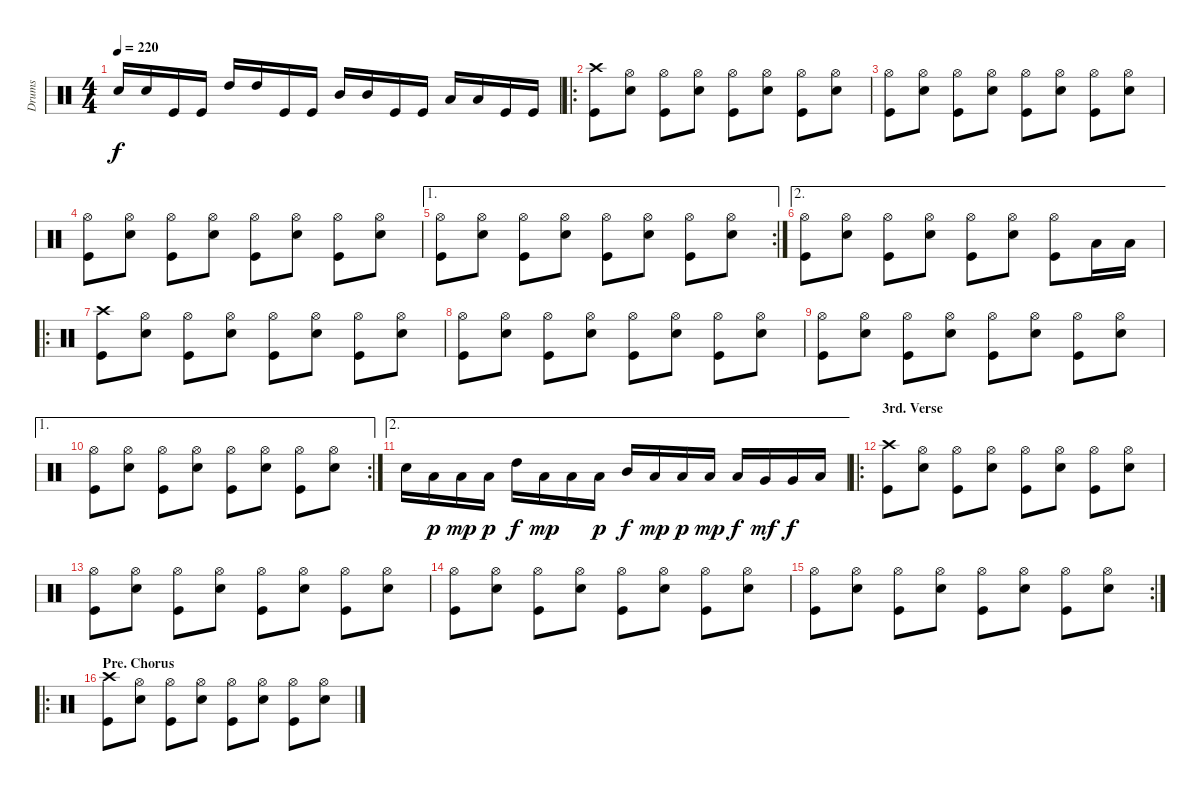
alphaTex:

\track ("Drums" "Drums") {instrument percussion}
\staff {score}
\articulation defaults
\ts (4 4)
\tempo 220
\clef neutral
\ks c "Snare (hit) 2".16{dy f} "Snare (hit) 2".16 "Kick (hit)".16 "Kick (hit)".16 "High Tom (hit)".16 "High Tom (hit)".16 "Kick (hit)".16 "Kick (hit)".16 "Mid Tom (hit)".16 "Mid Tom (hit)".16 "Kick (hit)".16 "Kick (hit)".16 "Low Tom (hit)".16 "Low Tom (hit)".16 "Kick (hit)".16 "Kick (hit)".16
|
\ro
("Crash high (hit)" "Kick (hit)").8 ("Hi-Hat (open)" "Snare (hit) 2").8 ("Hi-Hat (open)" "Kick (hit)").8 ("Hi-Hat (open)" "Snare (hit) 2").8 ("Hi-Hat (open)" "Kick (hit)").8 ("Hi-Hat (open)" "Snare (hit) 2").8 ("Hi-Hat (open)" "Kick (hit)").8 ("Hi-Hat (open)" "Snare (hit) 2").8 |
("Hi-Hat (open)" "Kick (hit)").8 ("Hi-Hat (open)" "Snare (hit) 2").8 ("Hi-Hat (open)" "Kick (hit)").8 ("Hi-Hat (open)" "Snare (hit) 2").8 ("Hi-Hat (open)" "Kick (hit)").8 ("Hi-Hat (open)" "Snare (hit) 2").8 ("Hi-Hat (open)" "Kick (hit)").8 ("Hi-Hat (open)" "Snare (hit) 2").8 |
("Hi-Hat (open)" "Kick (hit)").8 ("Hi-Hat (open)" "Snare (hit) 2").8 ("Hi-Hat (open)" "Kick (hit)").8 ("Hi-Hat (open)" "Snare (hit) 2").8 ("Hi-Hat (open)" "Kick (hit)").8 ("Hi-Hat (open)" "Snare (hit) 2").8 ("Hi-Hat (open)" "Kick (hit)").8 ("Hi-Hat (open)" "Snare (hit) 2").8 |
\ae 1
\rc 2
("Hi-Hat (open)" "Kick (hit)").8 ("Hi-Hat (open)" "Snare (hit) 2").8 ("Hi-Hat (open)" "Kick (hit)").8 ("Hi-Hat (open)" "Snare (hit) 2").8 ("Hi-Hat (open)" "Kick (hit)").8 ("Hi-Hat (open)" "Snare (hit) 2").8 ("Hi-Hat (open)" "Kick (hit)").8 ("Hi-Hat (open)" "Snare (hit) 2").8 |
\ae 2
("Hi-Hat (open)" "Kick (hit)").8 ("Hi-Hat (open)" "Snare (hit) 2").8 ("Hi-Hat (open)" "Kick (hit)").8 ("Hi-Hat (open)" "Snare (hit) 2").8 ("Hi-Hat (open)" "Kick (hit)").8 ("Hi-Hat (open)" "Snare (hit) 2").8 ("Hi-Hat (open)" "Kick (hit)").8 "Low Tom (hit)".16 "Low Tom (hit)".16 |
\ro
("Crash high (hit)" "Kick (hit)").8 ("Hi-Hat (open)" "Snare (hit) 2").8 ("Hi-Hat (open)" "Kick (hit)").8 ("Hi-Hat (open)" "Snare (hit) 2").8 ("Hi-Hat (open)" "Kick (hit)").8 ("Hi-Hat (open)" "Snare (hit) 2").8 ("Hi-Hat (open)" "Kick (hit)").8 ("Hi-Hat (open)" "Snare (hit) 2").8 |
("Hi-Hat (open)" "Kick (hit)").8 ("Hi-Hat (open)" "Snare (hit) 2").8 ("Hi-Hat (open)" "Kick (hit)").8 ("Hi-Hat (open)" "Snare (hit) 2").8 ("Hi-Hat (open)" "Kick (hit)").8 ("Hi-Hat (open)" "Snare (hit) 2").8 ("Hi-Hat (open)" "Kick (hit)").8 ("Hi-Hat (open)" "Snare (hit) 2").8 |
("Hi-Hat (open)" "Kick (hit)").8 ("Hi-Hat (open)" "Snare (hit) 2").8 ("Hi-Hat (open)" "Kick (hit)").8 ("Hi-Hat (open)" "Snare (hit) 2").8 ("Hi-Hat (open)" "Kick (hit)").8 ("Hi-Hat (open)" "Snare (hit) 2").8 ("Hi-Hat (open)" "Kick (hit)").8 ("Hi-Hat (open)" "Snare (hit) 2").8 |
\ae 1
\rc 2
("Hi-Hat (open)" "Kick (hit)").8 ("Hi-Hat (open)" "Snare (hit) 2").8 ("Hi-Hat (open)" "Kick (hit)").8 ("Hi-Hat (open)" "Snare (hit) 2").8 ("Hi-Hat (open)" "Kick (hit)").8 ("Hi-Hat (open)" "Snare (hit) 2").8 ("Hi-Hat (open)" "Kick (hit)").8 ("Hi-Hat (open)" "Snare (hit) 2").8 |
\ae 2 "Snare (hit) 2".16 "Low Tom (hit)".16{dy p} "Low Tom (hit)".16{dy mp} "Low Tom (hit)".16{dy p} "High Tom (hit)".16{dy f} "Low Tom (hit)".16{dy mp} "Low Tom (hit)".16 "Low Tom (hit)".16{dy p} "Mid Tom (hit)".16{dy f} "Low Tom (hit)".16{dy mp} "Low Tom (hit)".16{dy p} "Low Tom (hit)".16{dy mp} "Low Tom (hit)".16{dy f} "Very Low Tom (hit)".16{dy mf} "Very Low Tom (hit)".16{dy f} "Low Floor Tom (hit)".16
|
\ro
\section ("" "3rd. Verse")
("Crash high (hit)" "Kick (hit)").8 ("Hi-Hat (open)" "Snare (hit) 2").8 ("Hi-Hat (open)" "Kick (hit)").8 ("Hi-Hat (open)" "Snare (hit) 2").8 ("Hi-Hat (open)" "Kick (hit)").8 ("Hi-Hat (open)" "Snare (hit) 2").8 ("Hi-Hat (open)" "Kick (hit)").8 ("Hi-Hat (open)" "Snare (hit) 2").8 |
("Hi-Hat (open)" "Kick (hit)").8 ("Hi-Hat (open)" "Snare (hit) 2").8 ("Hi-Hat (open)" "Kick (hit)").8 ("Hi-Hat (open)" "Snare (hit) 2").8 ("Hi-Hat (open)" "Kick (hit)").8 ("Hi-Hat (open)" "Snare (hit) 2").8 ("Hi-Hat (open)" "Kick (hit)").8 ("Hi-Hat (open)" "Snare (hit) 2").8 |
("Hi-Hat (open)" "Kick (hit)").8 ("Hi-Hat (open)" "Snare (hit) 2").8 ("Hi-Hat (open)" "Kick (hit)").8 ("Hi-Hat (open)" "Snare (hit) 2").8 ("Hi-Hat (open)" "Kick (hit)").8 ("Hi-Hat (open)" "Snare (hit) 2").8 ("Hi-Hat (open)" "Kick (hit)").8 ("Hi-Hat (open)" "Snare (hit) 2").8 |
\rc 2
("Hi-Hat (open)" "Kick (hit)").8 ("Hi-Hat (open)" "Snare (hit) 2").8 ("Hi-Hat (open)" "Kick (hit)").8 ("Hi-Hat (open)" "Snare (hit) 2").8 ("Hi-Hat (open)" "Kick (hit)").8 ("Hi-Hat (open)" "Snare (hit) 2").8 ("Hi-Hat (open)" "Kick (hit)").8 ("Hi-Hat (open)" "Snare (hit) 2").8 |
\ro
\section ("" "Pre. Chorus")
("Crash high (hit)" "Kick (hit)").8 ("Hi-Hat (open)" "Snare (hit) 2").8 ("Hi-Hat (open)" "Kick (hit)").8 ("Hi-Hat (open)" "Snare (hit) 2").8 ("Hi-Hat (open)" "Kick (hit)").8 ("Hi-Hat (open)" "Snare (hit) 2").8 ("Hi-Hat (open)" "Kick (hit)").8 ("Hi-Hat (open)" "Snare (hit) 2").8
